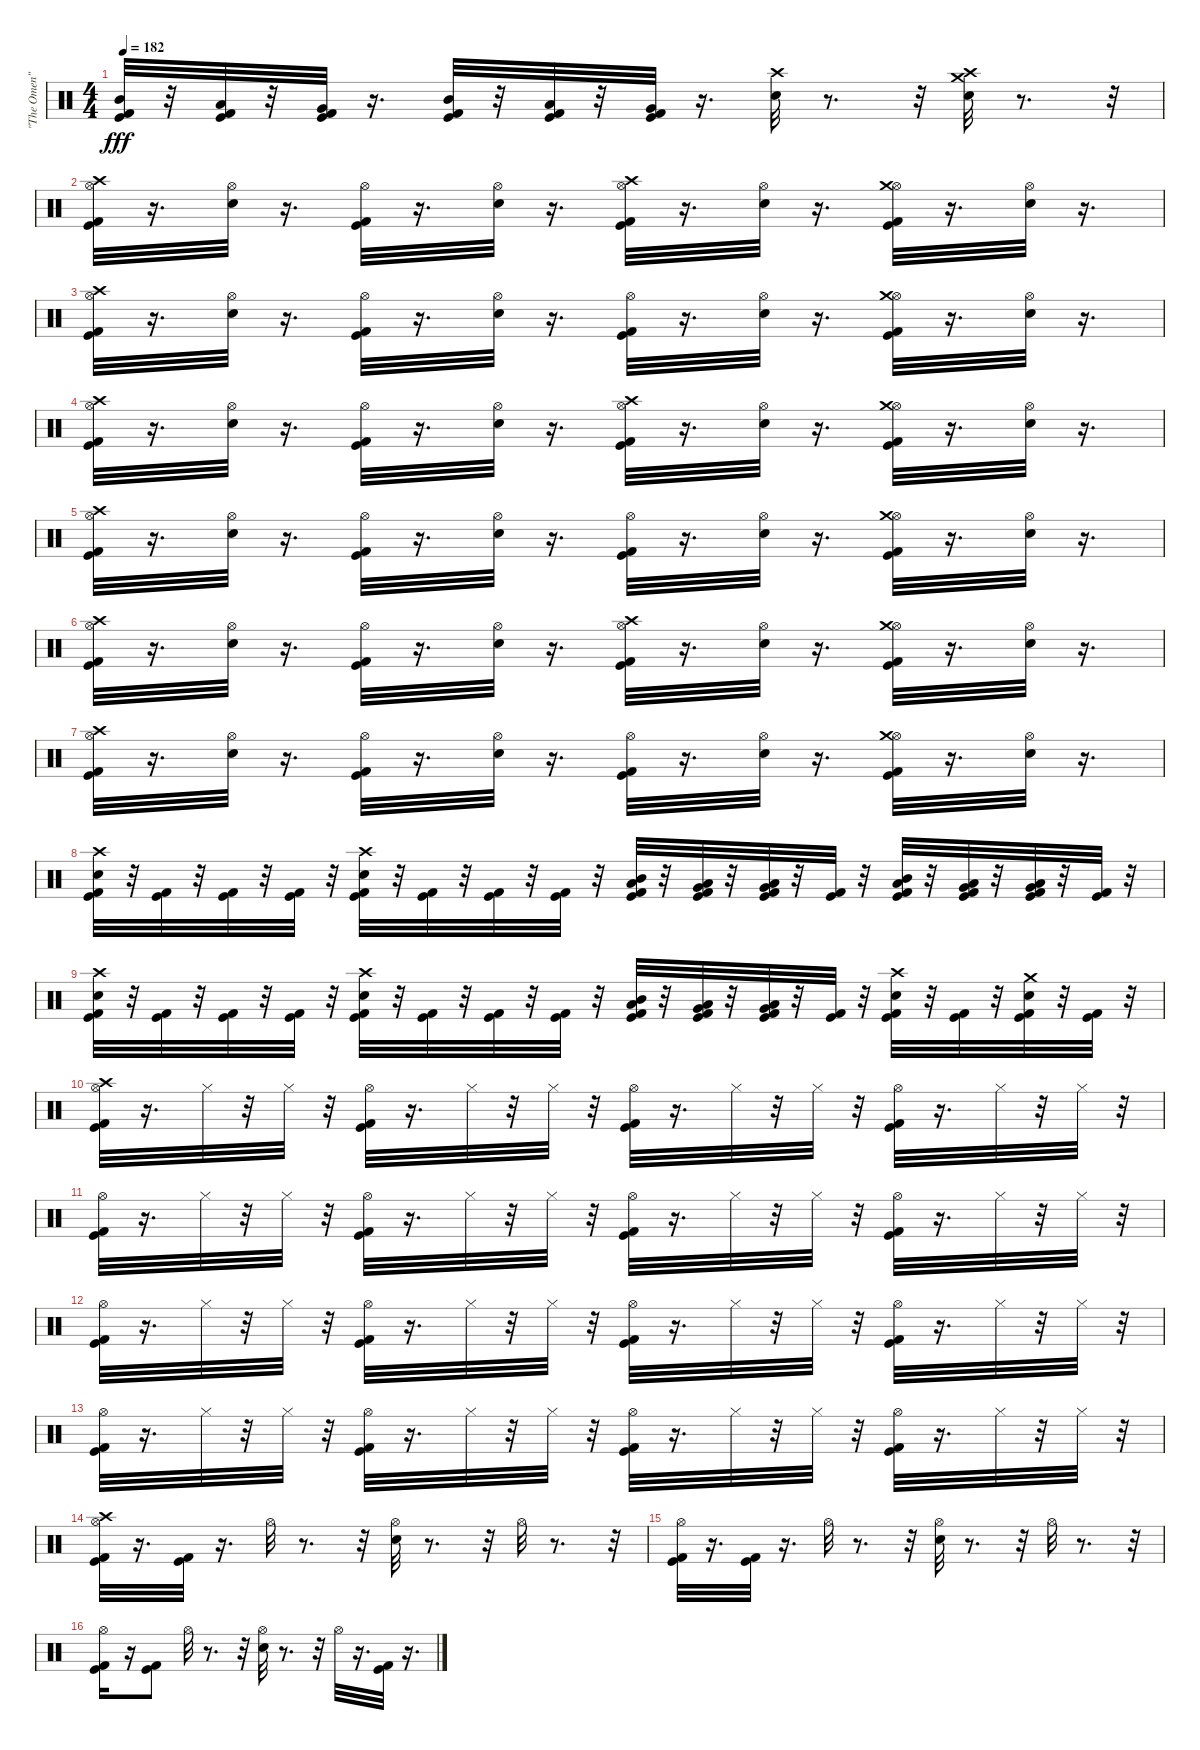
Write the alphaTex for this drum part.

\track ("\"The Omen\"" "\"The Omen\"") {instrument percussion}
\staff {score}
\articulation defaults
\ts (4 4)
\tempo 182
\clef neutral
\ks c
("Kick (hit)" "Kick (hit) 2" "Mid Tom (hit)").32{dy fff} r.32 ("Kick (hit)" "Kick (hit) 2" "Low Tom (hit)").32 r.32 ("Kick (hit)" "Kick (hit) 2" "Very Low Tom (hit)").32 r.16{d} ("Kick (hit)" "Kick (hit) 2" "Mid Tom (hit)").32 r.32 ("Kick (hit)" "Kick (hit) 2" "Low Tom (hit)").32 r.32 ("Kick (hit)" "Kick (hit) 2" "Very Low Tom (hit)").32 r.16{d} ("Snare (hit) 2" "Crash high (hit)").32 r.8{d} r.32 ("Snare (hit) 2" "Crash high (hit)" "Crash medium (hit)").32 r.8{d} r.32 |
("Kick (hit)" "Kick (hit) 2" "Hi-Hat (open)" "Crash high (hit)").32 r.16{d} ("Snare (hit) 2" "Hi-Hat (open)").32 r.16{d} ("Kick (hit)" "Kick (hit) 2" "Hi-Hat (open)").32 r.16{d} ("Snare (hit) 2" "Hi-Hat (open)").32 r.16{d} ("Kick (hit)" "Kick (hit) 2" "Hi-Hat (open)" "Crash high (hit)").32 r.16{d} ("Snare (hit) 2" "Hi-Hat (open)").32 r.16{d} ("Kick (hit)" "Kick (hit) 2" "Hi-Hat (open)" "Crash medium (hit)").32 r.16{d} ("Snare (hit) 2" "Hi-Hat (open)").32 r.16{d} |
("Kick (hit)" "Kick (hit) 2" "Hi-Hat (open)" "Crash high (hit)").32 r.16{d} ("Snare (hit) 2" "Hi-Hat (open)").32 r.16{d} ("Kick (hit)" "Kick (hit) 2" "Hi-Hat (open)").32 r.16{d} ("Snare (hit) 2" "Hi-Hat (open)").32 r.16{d} ("Kick (hit)" "Kick (hit) 2" "Hi-Hat (open)").32 r.16{d} ("Snare (hit) 2" "Hi-Hat (open)").32 r.16{d} ("Kick (hit)" "Kick (hit) 2" "Hi-Hat (open)" "Crash medium (hit)").32 r.16{d} ("Snare (hit) 2" "Hi-Hat (open)").32 r.16{d} |
("Kick (hit)" "Kick (hit) 2" "Hi-Hat (open)" "Crash high (hit)").32 r.16{d} ("Snare (hit) 2" "Hi-Hat (open)").32 r.16{d} ("Kick (hit)" "Kick (hit) 2" "Hi-Hat (open)").32 r.16{d} ("Snare (hit) 2" "Hi-Hat (open)").32 r.16{d} ("Kick (hit)" "Kick (hit) 2" "Hi-Hat (open)" "Crash high (hit)").32 r.16{d} ("Snare (hit) 2" "Hi-Hat (open)").32 r.16{d} ("Kick (hit)" "Kick (hit) 2" "Hi-Hat (open)" "Crash medium (hit)").32 r.16{d} ("Snare (hit) 2" "Hi-Hat (open)").32 r.16{d} |
("Kick (hit)" "Kick (hit) 2" "Hi-Hat (open)" "Crash high (hit)").32 r.16{d} ("Snare (hit) 2" "Hi-Hat (open)").32 r.16{d} ("Kick (hit)" "Kick (hit) 2" "Hi-Hat (open)").32 r.16{d} ("Snare (hit) 2" "Hi-Hat (open)").32 r.16{d} ("Kick (hit)" "Kick (hit) 2" "Hi-Hat (open)").32 r.16{d} ("Snare (hit) 2" "Hi-Hat (open)").32 r.16{d} ("Kick (hit)" "Kick (hit) 2" "Hi-Hat (open)" "Crash medium (hit)").32 r.16{d} ("Snare (hit) 2" "Hi-Hat (open)").32 r.16{d} |
("Kick (hit)" "Kick (hit) 2" "Hi-Hat (open)" "Crash high (hit)").32 r.16{d} ("Snare (hit) 2" "Hi-Hat (open)").32 r.16{d} ("Kick (hit)" "Kick (hit) 2" "Hi-Hat (open)").32 r.16{d} ("Snare (hit) 2" "Hi-Hat (open)").32 r.16{d} ("Kick (hit)" "Kick (hit) 2" "Hi-Hat (open)" "Crash high (hit)").32 r.16{d} ("Snare (hit) 2" "Hi-Hat (open)").32 r.16{d} ("Kick (hit)" "Kick (hit) 2" "Hi-Hat (open)" "Crash medium (hit)").32 r.16{d} ("Snare (hit) 2" "Hi-Hat (open)").32 r.16{d} |
("Kick (hit)" "Kick (hit) 2" "Hi-Hat (open)" "Crash high (hit)").32 r.16{d} ("Snare (hit) 2" "Hi-Hat (open)").32 r.16{d} ("Kick (hit)" "Kick (hit) 2" "Hi-Hat (open)").32 r.16{d} ("Snare (hit) 2" "Hi-Hat (open)").32 r.16{d} ("Kick (hit)" "Kick (hit) 2" "Hi-Hat (open)").32 r.16{d} ("Snare (hit) 2" "Hi-Hat (open)").32 r.16{d} ("Kick (hit)" "Kick (hit) 2" "Hi-Hat (open)" "Crash medium (hit)").32 r.16{d} ("Snare (hit) 2" "Hi-Hat (open)").32 r.16{d} |
("Kick (hit)" "Kick (hit) 2" "Snare (hit) 2" "Crash high (hit)").32 r.32 ("Kick (hit)" "Kick (hit) 2").32 r.32 ("Kick (hit)" "Kick (hit) 2").32 r.32 ("Kick (hit)" "Kick (hit) 2").32 r.32 ("Kick (hit)" "Kick (hit) 2" "Snare (hit) 2" "Crash high (hit)").32 r.32 ("Kick (hit)" "Kick (hit) 2").32 r.32 ("Kick (hit)" "Kick (hit) 2").32 r.32 ("Kick (hit)" "Kick (hit) 2").32 r.32 ("Kick (hit)" "Kick (hit) 2" "Low Tom (hit)" "Mid Tom (hit)").32 r.32 ("Kick (hit)" "Kick (hit) 2" "Very Low Tom (hit)" "Low Tom (hit)").32 r.32 ("Kick (hit)" "Kick (hit) 2" "Low Floor Tom (hit)" "Very Low Tom (hit)").32 r.32 ("Kick (hit)" "Kick (hit) 2").32 r.32 ("Kick (hit)" "Kick (hit) 2" "Low Tom (hit)" "Mid Tom (hit)").32 r.32 ("Kick (hit)" "Kick (hit) 2" "Very Low Tom (hit)" "Low Tom (hit)").32 r.32 ("Kick (hit)" "Kick (hit) 2" "Low Floor Tom (hit)" "Very Low Tom (hit)").32 r.32 ("Kick (hit)" "Kick (hit) 2").32 r.32 |
("Kick (hit)" "Kick (hit) 2" "Snare (hit) 2" "Crash high (hit)").32 r.32 ("Kick (hit)" "Kick (hit) 2").32 r.32 ("Kick (hit)" "Kick (hit) 2").32 r.32 ("Kick (hit)" "Kick (hit) 2").32 r.32 ("Kick (hit)" "Kick (hit) 2" "Snare (hit) 2" "Crash high (hit)").32 r.32 ("Kick (hit)" "Kick (hit) 2").32 r.32 ("Kick (hit)" "Kick (hit) 2").32 r.32 ("Kick (hit)" "Kick (hit) 2").32 r.32 ("Kick (hit)" "Kick (hit) 2" "Low Tom (hit)" "Mid Tom (hit)").32 r.32 ("Kick (hit)" "Kick (hit) 2" "Very Low Tom (hit)" "Low Tom (hit)").32 r.32 ("Kick (hit)" "Kick (hit) 2" "Low Floor Tom (hit)" "Very Low Tom (hit)").32 r.32 ("Kick (hit)" "Kick (hit) 2").32 r.32 ("Kick (hit)" "Kick (hit) 2" "Snare (hit) 2" "Crash high (hit)").32 r.32 ("Kick (hit)" "Kick (hit) 2").32 r.32 ("Kick (hit)" "Kick (hit) 2" "Snare (hit) 2" "Crash medium (hit)").32 r.32 ("Kick (hit)" "Kick (hit) 2").32 r.32 |
("Kick (hit)" "Kick (hit) 2" "Hi-Hat (open)" "Crash high (hit)").32 r.16{d} "Hi-Hat (closed)".32 r.32 "Hi-Hat (closed)".32 r.32 ("Kick (hit)" "Kick (hit) 2" "Hi-Hat (open)").32 r.16{d} "Hi-Hat (closed)".32 r.32 "Hi-Hat (closed)".32 r.32 ("Kick (hit)" "Kick (hit) 2" "Hi-Hat (open)").32 r.16{d} "Hi-Hat (closed)".32 r.32 "Hi-Hat (closed)".32 r.32 ("Kick (hit)" "Kick (hit) 2" "Hi-Hat (open)").32 r.16{d} "Hi-Hat (closed)".32 r.32 "Hi-Hat (closed)".32 r.32 |
("Kick (hit)" "Kick (hit) 2" "Hi-Hat (open)").32 r.16{d} "Hi-Hat (closed)".32 r.32 "Hi-Hat (closed)".32 r.32 ("Kick (hit)" "Kick (hit) 2" "Hi-Hat (open)").32 r.16{d} "Hi-Hat (closed)".32 r.32 "Hi-Hat (closed)".32 r.32 ("Kick (hit)" "Kick (hit) 2" "Hi-Hat (open)").32 r.16{d} "Hi-Hat (closed)".32 r.32 "Hi-Hat (closed)".32 r.32 ("Kick (hit)" "Kick (hit) 2" "Hi-Hat (open)").32 r.16{d} "Hi-Hat (closed)".32 r.32 "Hi-Hat (closed)".32 r.32 |
("Kick (hit)" "Kick (hit) 2" "Hi-Hat (open)").32 r.16{d} "Hi-Hat (closed)".32 r.32 "Hi-Hat (closed)".32 r.32 ("Kick (hit)" "Kick (hit) 2" "Hi-Hat (open)").32 r.16{d} "Hi-Hat (closed)".32 r.32 "Hi-Hat (closed)".32 r.32 ("Kick (hit)" "Kick (hit) 2" "Hi-Hat (open)").32 r.16{d} "Hi-Hat (closed)".32 r.32 "Hi-Hat (closed)".32 r.32 ("Kick (hit)" "Kick (hit) 2" "Hi-Hat (open)").32 r.16{d} "Hi-Hat (closed)".32 r.32 "Hi-Hat (closed)".32 r.32 |
("Kick (hit)" "Kick (hit) 2" "Hi-Hat (open)").32 r.16{d} "Hi-Hat (closed)".32 r.32 "Hi-Hat (closed)".32 r.32 ("Kick (hit)" "Kick (hit) 2" "Hi-Hat (open)").32 r.16{d} "Hi-Hat (closed)".32 r.32 "Hi-Hat (closed)".32 r.32 ("Kick (hit)" "Kick (hit) 2" "Hi-Hat (open)").32 r.16{d} "Hi-Hat (closed)".32 r.32 "Hi-Hat (closed)".32 r.32 ("Kick (hit)" "Kick (hit) 2" "Hi-Hat (open)").32 r.16{d} "Hi-Hat (closed)".32 r.32 "Hi-Hat (closed)".32 r.32 |
("Kick (hit)" "Kick (hit) 2" "Hi-Hat (open)" "Crash high (hit)").32 r.16{d} ("Kick (hit)" "Kick (hit) 2").32 r.16{d} "Hi-Hat (open)".32 r.8{d} r.32 ("Snare (hit) 2" "Hi-Hat (open)").32 r.8{d} r.32 "Hi-Hat (open)".32 r.8{d} r.32 |
("Kick (hit)" "Kick (hit) 2" "Hi-Hat (open)").32 r.16{d} ("Kick (hit)" "Kick (hit) 2").32 r.16{d} "Hi-Hat (open)".32 r.8{d} r.32 ("Snare (hit) 2" "Hi-Hat (open)").32 r.8{d} r.32 "Hi-Hat (open)".32 r.8{d} r.32 |
("Kick (hit)" "Kick (hit) 2" "Hi-Hat (open)").16 r.16 ("Kick (hit)" "Kick (hit) 2").8 "Hi-Hat (open)".32 r.8{d} r.32 ("Snare (hit) 2" "Hi-Hat (open)").32 r.8{d} r.32 "Hi-Hat (open)".32 r.16{d} ("Kick (hit)" "Kick (hit) 2").32 r.16{d}
